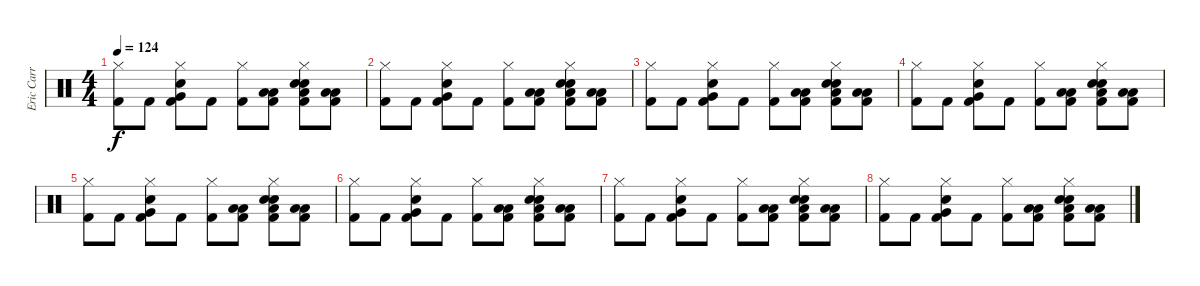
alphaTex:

\track ("Eric Carr" "Eric Carr") {instrument percussion}
\staff {score}
\articulation defaults
\ts (4 4)
\tempo 124
\clef neutral
\ks c
("Hi-Hat (closed)" "Kick (hit) 2").8{dy f} "Kick (hit) 2".8 ("Hi-Hat (closed)" "Very Low Tom (hit)" "Snare (hit) 2" "Kick (hit) 2").8 "Kick (hit) 2".8 ("Hi-Hat (closed)" "Kick (hit) 2").8 ("Low Tom (hit)" "Low Tom (hit)" "Kick (hit) 2").8 ("Hi-Hat (closed)" "Snare (hit) 2" "Low Floor Tom (hit)" "Snare (hit) 2" "Kick (hit) 2").8 ("Low Tom (hit)" "Low Tom (hit)" "Kick (hit) 2").8 |
("Hi-Hat (closed)" "Kick (hit) 2").8 "Kick (hit) 2".8 ("Hi-Hat (closed)" "Very Low Tom (hit)" "Snare (hit) 2" "Kick (hit) 2").8 "Kick (hit) 2".8 ("Hi-Hat (closed)" "Kick (hit) 2").8 ("Low Tom (hit)" "Low Tom (hit)" "Kick (hit) 2").8 ("Hi-Hat (closed)" "Snare (hit) 2" "Low Floor Tom (hit)" "Snare (hit) 2" "Kick (hit) 2").8 ("Low Tom (hit)" "Low Tom (hit)" "Kick (hit) 2").8 |
("Hi-Hat (closed)" "Kick (hit) 2").8 "Kick (hit) 2".8 ("Hi-Hat (closed)" "Very Low Tom (hit)" "Snare (hit) 2" "Kick (hit) 2").8 "Kick (hit) 2".8 ("Hi-Hat (closed)" "Kick (hit) 2").8 ("Low Tom (hit)" "Low Tom (hit)" "Kick (hit) 2").8 ("Hi-Hat (closed)" "Snare (hit) 2" "Low Floor Tom (hit)" "Snare (hit) 2" "Kick (hit) 2").8 ("Low Tom (hit)" "Low Tom (hit)" "Kick (hit) 2").8 |
("Hi-Hat (closed)" "Kick (hit) 2").8 "Kick (hit) 2".8 ("Hi-Hat (closed)" "Very Low Tom (hit)" "Snare (hit) 2" "Kick (hit) 2").8 "Kick (hit) 2".8 ("Hi-Hat (closed)" "Kick (hit) 2").8 ("Low Tom (hit)" "Low Tom (hit)" "Kick (hit) 2").8 ("Hi-Hat (closed)" "Snare (hit) 2" "Low Floor Tom (hit)" "Snare (hit) 2" "Kick (hit) 2").8 ("Low Tom (hit)" "Low Tom (hit)" "Kick (hit) 2").8 |
("Hi-Hat (closed)" "Kick (hit) 2").8 "Kick (hit) 2".8 ("Hi-Hat (closed)" "Very Low Tom (hit)" "Snare (hit) 2" "Kick (hit) 2").8 "Kick (hit) 2".8 ("Hi-Hat (closed)" "Kick (hit) 2").8 ("Low Tom (hit)" "Low Tom (hit)" "Kick (hit) 2").8 ("Hi-Hat (closed)" "Snare (hit) 2" "Low Floor Tom (hit)" "Snare (hit) 2" "Kick (hit) 2").8 ("Low Tom (hit)" "Low Tom (hit)" "Kick (hit) 2").8 |
("Hi-Hat (closed)" "Kick (hit) 2").8 "Kick (hit) 2".8 ("Hi-Hat (closed)" "Very Low Tom (hit)" "Snare (hit) 2" "Kick (hit) 2").8 "Kick (hit) 2".8 ("Hi-Hat (closed)" "Kick (hit) 2").8 ("Low Tom (hit)" "Low Tom (hit)" "Kick (hit) 2").8 ("Hi-Hat (closed)" "Snare (hit) 2" "Low Floor Tom (hit)" "Snare (hit) 2" "Kick (hit) 2").8 ("Low Tom (hit)" "Low Tom (hit)" "Kick (hit) 2").8 |
("Hi-Hat (closed)" "Kick (hit) 2").8 "Kick (hit) 2".8 ("Hi-Hat (closed)" "Very Low Tom (hit)" "Snare (hit) 2" "Kick (hit) 2").8 "Kick (hit) 2".8 ("Hi-Hat (closed)" "Kick (hit) 2").8 ("Low Tom (hit)" "Low Tom (hit)" "Kick (hit) 2").8 ("Hi-Hat (closed)" "Snare (hit) 2" "Low Floor Tom (hit)" "Snare (hit) 2" "Kick (hit) 2").8 ("Low Tom (hit)" "Low Tom (hit)" "Kick (hit) 2").8 |
("Hi-Hat (closed)" "Kick (hit) 2").8 "Kick (hit) 2".8 ("Hi-Hat (closed)" "Very Low Tom (hit)" "Snare (hit) 2" "Kick (hit) 2").8 "Kick (hit) 2".8 ("Hi-Hat (closed)" "Kick (hit) 2").8 ("Low Tom (hit)" "Low Tom (hit)" "Kick (hit) 2").8 ("Hi-Hat (closed)" "Snare (hit) 2" "Low Floor Tom (hit)" "Snare (hit) 2" "Kick (hit) 2").8 ("Low Tom (hit)" "Low Tom (hit)" "Kick (hit) 2").8
